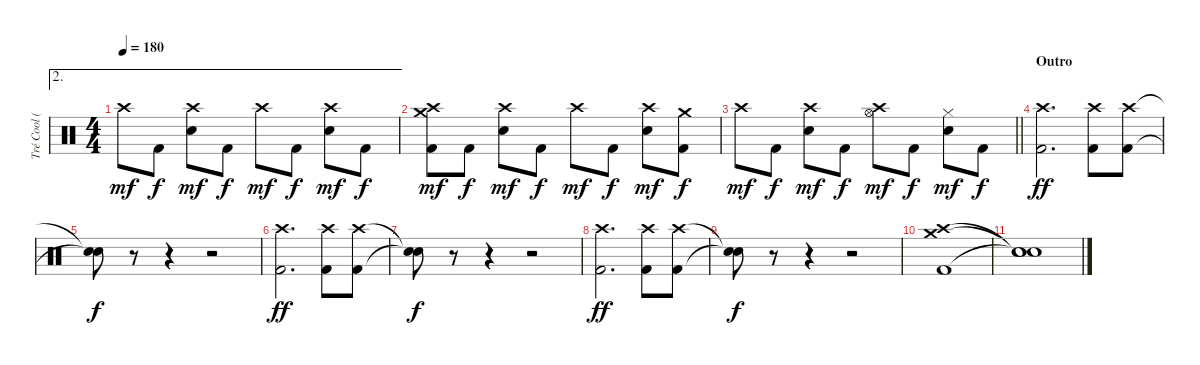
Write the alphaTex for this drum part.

\track ("Tré Cool (Drums)" "Tré Cool (") {instrument percussion}
\staff {score}
\articulation defaults
\ae 2
\ts (4 4)
\tempo 180
\clef neutral
\ks c "Crash high (hit)".8{dy mf} "Kick (hit) 2".8{dy f}
("Crash high (hit)" "Electric Snare (hit)").8{dy mf} "Kick (hit) 2".8{dy f} "Crash high (hit)".8{dy mf} "Kick (hit) 2".8{dy f} ("Crash high (hit)" "Electric Snare (hit)").8{dy mf} "Kick (hit) 2".8{dy f} |
("Crash medium (hit)" "Crash high (hit)" "Kick (hit) 2").8{dy mf} "Kick (hit) 2".8{dy f} ("Crash high (hit)" "Electric Snare (hit)").8{dy mf} "Kick (hit) 2".8{dy f} "Crash high (hit)".8{dy mf} "Kick (hit) 2".8{dy f} ("Crash high (hit)" "Electric Snare (hit)").8{dy mf} ("Crash medium (hit)" "Kick (hit) 2").8{dy f} |
\barLineRight lightlight "Crash high (hit)".8{dy mf} "Kick (hit) 2".8{dy f}
("Crash high (hit)" "Electric Snare (hit)").8{dy mf} "Kick (hit) 2".8{dy f} ("Crash high (hit)" "Hi-Hat (open)").8{dy mf} "Kick (hit) 2".8{dy f} ("Hi-Hat (closed)" "Electric Snare (hit)").8{dy mf} "Kick (hit) 2".8{dy f} |
\section ("" "Outro")
("Crash high (hit)" "Kick (hit) 2").2{d dy ff} ("Crash high (hit)" "Kick (hit) 2").8 ("Crash high (hit)" "Kick (hit) 2").8 |
("Snare (hit)"{t} "Snare (hit)"{t}).8{dy f} r.8{volume 0} r.4{volume 12} r.2 |
("Crash high (hit)" "Kick (hit) 2").2{d dy ff} ("Crash high (hit)" "Kick (hit) 2").8 ("Crash high (hit)" "Kick (hit) 2").8 |
("Snare (hit)"{t} "Snare (hit)"{t}).8{dy f} r.8{volume 0} r.4{volume 12} r.2 |
("Crash high (hit)" "Kick (hit) 2").2{d dy ff} ("Crash high (hit)" "Kick (hit) 2").8 ("Crash high (hit)" "Kick (hit) 2").8 |
("Snare (hit)"{t} "Snare (hit)"{t}).8{dy f} r.8{volume 0} r.4{volume 12} r.2 |
("Crash medium (hit)" "Crash high (hit)" "Kick (hit) 2").1 |
("Snare (hit)"{t} "Snare (hit)"{t} "Snare (hit)"{t}).1
